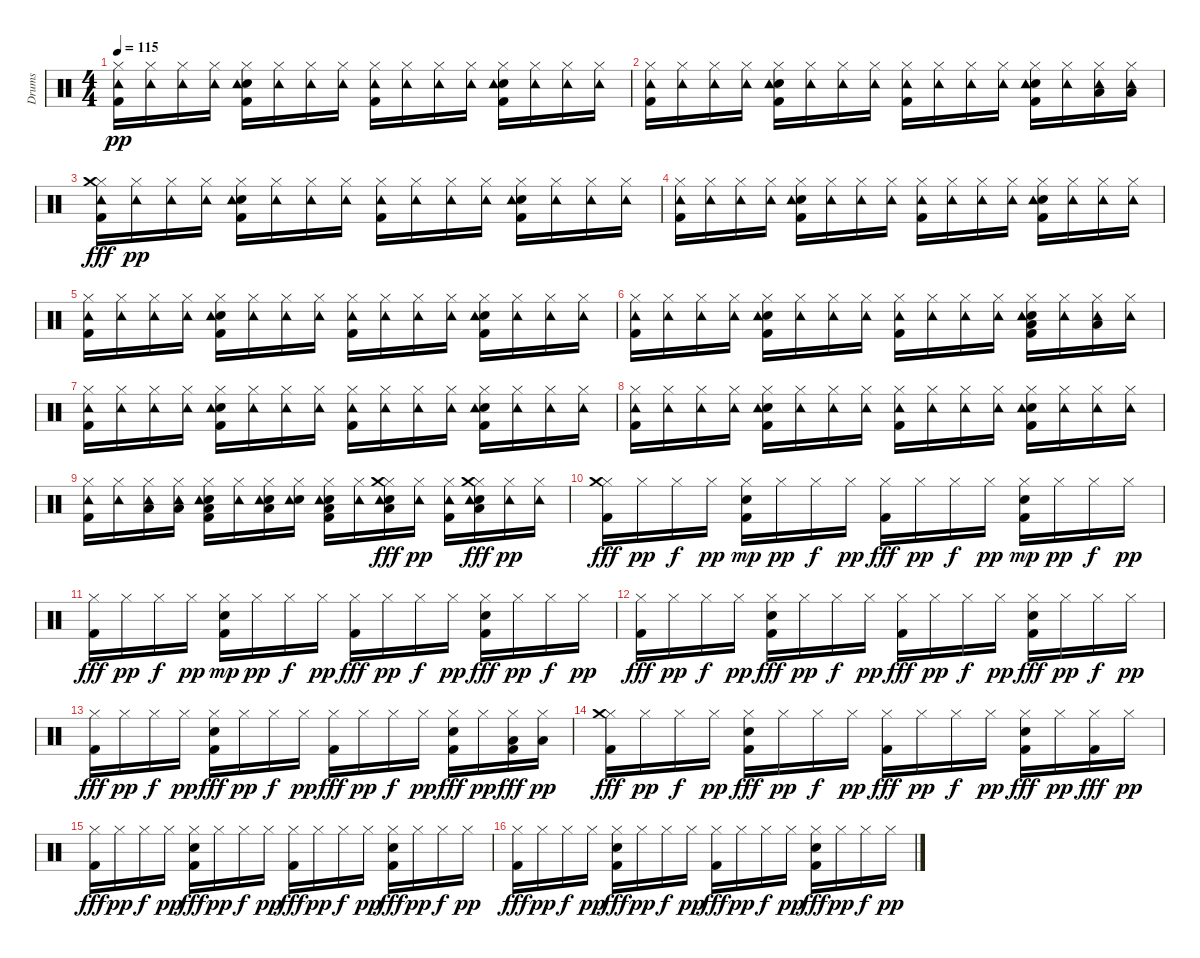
\track ("Drums" "Drums") {instrument percussion}
\staff {score}
\articulation defaults
\ts (4 4)
\tempo 115
\clef neutral
\ks c
("Kick (hit) 2" "Hi-Hat (closed)" "Tambourine (hit)").16{dy pp} ("Hi-Hat (closed)" "Tambourine (hit)").16 ("Hi-Hat (closed)" "Tambourine (hit)").16 ("Hi-Hat (closed)" "Tambourine (hit)").16 ("Kick (hit) 2" "Snare (hit) 2" "Hi-Hat (closed)" "Tambourine (hit)").16 ("Hi-Hat (closed)" "Tambourine (hit)").16 ("Hi-Hat (closed)" "Tambourine (hit)").16 ("Hi-Hat (closed)" "Tambourine (hit)").16 ("Kick (hit) 2" "Hi-Hat (closed)" "Tambourine (hit)").16 ("Hi-Hat (closed)" "Tambourine (hit)").16 ("Hi-Hat (closed)" "Tambourine (hit)").16 ("Hi-Hat (closed)" "Tambourine (hit)").16 ("Kick (hit) 2" "Snare (hit) 2" "Hi-Hat (closed)" "Tambourine (hit)").16 ("Hi-Hat (closed)" "Tambourine (hit)").16 ("Hi-Hat (closed)" "Tambourine (hit)").16 ("Hi-Hat (closed)" "Tambourine (hit)").16 |
("Kick (hit) 2" "Hi-Hat (closed)" "Tambourine (hit)").16 ("Hi-Hat (closed)" "Tambourine (hit)").16 ("Hi-Hat (closed)" "Tambourine (hit)").16 ("Hi-Hat (closed)" "Tambourine (hit)").16 ("Kick (hit) 2" "Snare (hit) 2" "Hi-Hat (closed)" "Tambourine (hit)").16 ("Hi-Hat (closed)" "Tambourine (hit)").16 ("Hi-Hat (closed)" "Tambourine (hit)").16 ("Hi-Hat (closed)" "Tambourine (hit)").16 ("Kick (hit) 2" "Hi-Hat (closed)" "Tambourine (hit)").16 ("Hi-Hat (closed)" "Tambourine (hit)").16 ("Hi-Hat (closed)" "Tambourine (hit)").16 ("Hi-Hat (closed)" "Tambourine (hit)").16 ("Kick (hit) 2" "Snare (hit) 2" "Hi-Hat (closed)" "Tambourine (hit)").16 ("Hi-Hat (closed)" "Tambourine (hit)").16 ("Hi-Hat (closed)" "Low Tom (hit)" "Tambourine (hit)").16 ("Hi-Hat (closed)" "Low Tom (hit)" "Tambourine (hit)").16 |
("Kick (hit) 2" "Hi-Hat (closed)" "Tambourine (hit)" "Crash medium (hit)").16{dy fff} ("Hi-Hat (closed)" "Tambourine (hit)").16{dy pp} ("Hi-Hat (closed)" "Tambourine (hit)").16 ("Hi-Hat (closed)" "Tambourine (hit)").16 ("Kick (hit) 2" "Snare (hit) 2" "Hi-Hat (closed)" "Tambourine (hit)").16 ("Hi-Hat (closed)" "Tambourine (hit)").16 ("Hi-Hat (closed)" "Tambourine (hit)").16 ("Hi-Hat (closed)" "Tambourine (hit)").16 ("Kick (hit) 2" "Hi-Hat (closed)" "Tambourine (hit)").16 ("Hi-Hat (closed)" "Tambourine (hit)").16 ("Hi-Hat (closed)" "Tambourine (hit)").16 ("Hi-Hat (closed)" "Tambourine (hit)").16 ("Kick (hit) 2" "Snare (hit) 2" "Hi-Hat (closed)" "Tambourine (hit)").16 ("Hi-Hat (closed)" "Tambourine (hit)").16 ("Hi-Hat (closed)" "Tambourine (hit)").16 ("Hi-Hat (closed)" "Tambourine (hit)").16 |
("Kick (hit) 2" "Hi-Hat (closed)" "Tambourine (hit)").16 ("Hi-Hat (closed)" "Tambourine (hit)").16 ("Hi-Hat (closed)" "Tambourine (hit)").16 ("Hi-Hat (closed)" "Tambourine (hit)").16 ("Kick (hit) 2" "Snare (hit) 2" "Hi-Hat (closed)" "Tambourine (hit)").16 ("Hi-Hat (closed)" "Tambourine (hit)").16 ("Hi-Hat (closed)" "Tambourine (hit)").16 ("Hi-Hat (closed)" "Tambourine (hit)").16 ("Kick (hit) 2" "Hi-Hat (closed)" "Tambourine (hit)").16 ("Hi-Hat (closed)" "Tambourine (hit)").16 ("Hi-Hat (closed)" "Tambourine (hit)").16 ("Hi-Hat (closed)" "Tambourine (hit)").16 ("Kick (hit) 2" "Snare (hit) 2" "Hi-Hat (closed)" "Tambourine (hit)").16 ("Hi-Hat (closed)" "Tambourine (hit)").16 ("Hi-Hat (closed)" "Tambourine (hit)").16 ("Hi-Hat (closed)" "Tambourine (hit)").16 |
("Kick (hit) 2" "Hi-Hat (closed)" "Tambourine (hit)").16 ("Hi-Hat (closed)" "Tambourine (hit)").16 ("Hi-Hat (closed)" "Tambourine (hit)").16 ("Hi-Hat (closed)" "Tambourine (hit)").16 ("Kick (hit) 2" "Snare (hit) 2" "Hi-Hat (closed)" "Tambourine (hit)").16 ("Hi-Hat (closed)" "Tambourine (hit)").16 ("Hi-Hat (closed)" "Tambourine (hit)").16 ("Hi-Hat (closed)" "Tambourine (hit)").16 ("Kick (hit) 2" "Hi-Hat (closed)" "Tambourine (hit)").16 ("Hi-Hat (closed)" "Tambourine (hit)").16 ("Hi-Hat (closed)" "Tambourine (hit)").16 ("Hi-Hat (closed)" "Tambourine (hit)").16 ("Kick (hit) 2" "Snare (hit) 2" "Hi-Hat (closed)" "Tambourine (hit)").16 ("Hi-Hat (closed)" "Tambourine (hit)").16 ("Hi-Hat (closed)" "Tambourine (hit)").16 ("Hi-Hat (closed)" "Tambourine (hit)").16 |
("Kick (hit) 2" "Hi-Hat (closed)" "Tambourine (hit)").16 ("Hi-Hat (closed)" "Tambourine (hit)").16 ("Hi-Hat (closed)" "Tambourine (hit)").16 ("Hi-Hat (closed)" "Tambourine (hit)").16 ("Kick (hit) 2" "Snare (hit) 2" "Hi-Hat (closed)" "Tambourine (hit)").16 ("Hi-Hat (closed)" "Tambourine (hit)").16 ("Hi-Hat (closed)" "Tambourine (hit)").16 ("Hi-Hat (closed)" "Tambourine (hit)").16 ("Kick (hit) 2" "Hi-Hat (closed)" "Tambourine (hit)").16 ("Hi-Hat (closed)" "Tambourine (hit)").16 ("Hi-Hat (closed)" "Tambourine (hit)").16 ("Hi-Hat (closed)" "Tambourine (hit)").16 ("Kick (hit) 2" "Snare (hit) 2" "Hi-Hat (closed)" "Low Tom (hit)" "Tambourine (hit)").16 ("Hi-Hat (closed)" "Tambourine (hit)").16 ("Low Floor Tom (hit)" "Hi-Hat (closed)" "Tambourine (hit)").16 ("Hi-Hat (closed)" "Tambourine (hit)").16 |
("Kick (hit) 2" "Hi-Hat (closed)" "Tambourine (hit)").16 ("Hi-Hat (closed)" "Tambourine (hit)").16 ("Hi-Hat (closed)" "Tambourine (hit)").16 ("Hi-Hat (closed)" "Tambourine (hit)").16 ("Kick (hit) 2" "Snare (hit) 2" "Hi-Hat (closed)" "Tambourine (hit)").16 ("Hi-Hat (closed)" "Tambourine (hit)").16 ("Hi-Hat (closed)" "Tambourine (hit)").16 ("Hi-Hat (closed)" "Tambourine (hit)").16 ("Kick (hit) 2" "Hi-Hat (closed)" "Tambourine (hit)").16 ("Hi-Hat (closed)" "Tambourine (hit)").16 ("Hi-Hat (closed)" "Tambourine (hit)").16 ("Hi-Hat (closed)" "Tambourine (hit)").16 ("Kick (hit) 2" "Snare (hit) 2" "Hi-Hat (closed)" "Tambourine (hit)").16 ("Hi-Hat (closed)" "Tambourine (hit)").16 ("Hi-Hat (closed)" "Tambourine (hit)").16 ("Hi-Hat (closed)" "Tambourine (hit)").16 |
("Kick (hit) 2" "Hi-Hat (closed)" "Tambourine (hit)").16 ("Hi-Hat (closed)" "Tambourine (hit)").16 ("Hi-Hat (closed)" "Tambourine (hit)").16 ("Hi-Hat (closed)" "Tambourine (hit)").16 ("Kick (hit) 2" "Snare (hit) 2" "Hi-Hat (closed)" "Tambourine (hit)").16 ("Hi-Hat (closed)" "Tambourine (hit)").16 ("Hi-Hat (closed)" "Tambourine (hit)").16 ("Hi-Hat (closed)" "Tambourine (hit)").16 ("Kick (hit) 2" "Hi-Hat (closed)" "Tambourine (hit)").16 ("Hi-Hat (closed)" "Tambourine (hit)").16 ("Hi-Hat (closed)" "Tambourine (hit)").16 ("Hi-Hat (closed)" "Tambourine (hit)").16 ("Kick (hit) 2" "Snare (hit) 2" "Hi-Hat (closed)" "Tambourine (hit)").16 ("Hi-Hat (closed)" "Tambourine (hit)").16 ("Hi-Hat (closed)" "Tambourine (hit)").16 ("Hi-Hat (closed)" "Tambourine (hit)").16 |
("Kick (hit) 2" "Hi-Hat (closed)" "Tambourine (hit)").16 ("Hi-Hat (closed)" "Tambourine (hit)").16 ("Hi-Hat (closed)" "Low Tom (hit)" "Tambourine (hit)").16 ("Hi-Hat (closed)" "Low Tom (hit)" "Tambourine (hit)").16 ("Kick (hit) 2" "Snare (hit) 2" "Hi-Hat (closed)" "Low Tom (hit)" "Tambourine (hit)").16 ("Hi-Hat (closed)" "Tambourine (hit)").16 ("Snare (hit) 2" "Hi-Hat (closed)" "Low Tom (hit)" "Tambourine (hit)").16 ("Snare (hit) 2" "Hi-Hat (closed)" "Tambourine (hit)").16 ("Kick (hit) 2" "Snare (hit) 2" "Low Floor Tom (hit)" "Hi-Hat (closed)" "Tambourine (hit)").16 ("Hi-Hat (closed)" "Tambourine (hit)").16 ("Snare (hit) 2" "Hi-Hat (closed)" "Low Tom (hit)" "Tambourine (hit)" "Crash medium (hit)").16{dy fff} ("Hi-Hat (closed)" "Tambourine (hit)").16{dy pp} ("Kick (hit) 2" "Hi-Hat (closed)" "Tambourine (hit)").16 ("Snare (hit) 2" "Hi-Hat (closed)" "Low Tom (hit)" "Tambourine (hit)" "Crash medium (hit)").16{dy fff} ("Hi-Hat (closed)" "Tambourine (hit)").16{dy pp} ("Hi-Hat (closed)" "Tambourine (hit)").16 |
("Kick (hit) 2" "Hi-Hat (closed)" "Crash medium (hit)").16{dy fff} "Hi-Hat (closed)".16{dy pp} "Hi-Hat (closed)".16{dy f} "Hi-Hat (closed)".16{dy pp} ("Kick (hit) 2" "Snare (hit) 2" "Hi-Hat (closed)").16{dy mp} "Hi-Hat (closed)".16{dy pp} "Hi-Hat (closed)".16{dy f} "Hi-Hat (closed)".16{dy pp} ("Kick (hit) 2" "Hi-Hat (closed)").16{dy fff} "Hi-Hat (closed)".16{dy pp} "Hi-Hat (closed)".16{dy f} "Hi-Hat (closed)".16{dy pp} ("Kick (hit) 2" "Snare (hit) 2" "Hi-Hat (closed)").16{dy mp} "Hi-Hat (closed)".16{dy pp} "Hi-Hat (closed)".16{dy f} "Hi-Hat (closed)".16{dy pp} |
("Kick (hit) 2" "Hi-Hat (closed)").16{dy fff} "Hi-Hat (closed)".16{dy pp} "Hi-Hat (closed)".16{dy f} "Hi-Hat (closed)".16{dy pp} ("Kick (hit) 2" "Snare (hit) 2" "Hi-Hat (closed)").16{dy mp} "Hi-Hat (closed)".16{dy pp} "Hi-Hat (closed)".16{dy f} "Hi-Hat (closed)".16{dy pp} ("Kick (hit) 2" "Hi-Hat (closed)").16{dy fff} "Hi-Hat (closed)".16{dy pp} "Hi-Hat (closed)".16{dy f} "Hi-Hat (closed)".16{dy pp} ("Kick (hit) 2" "Snare (hit) 2" "Hi-Hat (closed)").16{dy fff} "Hi-Hat (closed)".16{dy pp} "Hi-Hat (closed)".16{dy f} "Hi-Hat (closed)".16{dy pp} |
("Kick (hit) 2" "Hi-Hat (closed)").16{dy fff} "Hi-Hat (closed)".16{dy pp} "Hi-Hat (closed)".16{dy f} "Hi-Hat (closed)".16{dy pp} ("Kick (hit) 2" "Snare (hit) 2" "Hi-Hat (closed)").16{dy fff} "Hi-Hat (closed)".16{dy pp} "Hi-Hat (closed)".16{dy f} "Hi-Hat (closed)".16{dy pp} ("Kick (hit) 2" "Hi-Hat (closed)").16{dy fff} "Hi-Hat (closed)".16{dy pp} "Hi-Hat (closed)".16{dy f} "Hi-Hat (closed)".16{dy pp} ("Kick (hit) 2" "Snare (hit) 2" "Hi-Hat (closed)").16{dy fff} "Hi-Hat (closed)".16{dy pp} "Hi-Hat (closed)".16{dy f} "Hi-Hat (closed)".16{dy pp} |
("Kick (hit) 2" "Hi-Hat (closed)").16{dy fff} "Hi-Hat (closed)".16{dy pp} "Hi-Hat (closed)".16{dy f} "Hi-Hat (closed)".16{dy pp} ("Kick (hit) 2" "Snare (hit) 2" "Hi-Hat (closed)").16{dy fff} "Hi-Hat (closed)".16{dy pp} "Hi-Hat (closed)".16{dy f} "Hi-Hat (closed)".16{dy pp} ("Kick (hit) 2" "Hi-Hat (closed)").16{dy fff} "Hi-Hat (closed)".16{dy pp} "Hi-Hat (closed)".16{dy f} "Hi-Hat (closed)".16{dy pp} ("Kick (hit) 2" "Snare (hit) 2" "Hi-Hat (closed)").16{dy fff} "Hi-Hat (closed)".16{dy pp} ("Kick (hit) 2" "Hi-Hat (closed)" "Low Tom (hit)").16{dy fff} ("Low Floor Tom (hit)" "Hi-Hat (closed)").16{dy pp} |
("Kick (hit) 2" "Hi-Hat (closed)" "Crash medium (hit)").16{dy fff} "Hi-Hat (closed)".16{dy pp} "Hi-Hat (closed)".16{dy f} "Hi-Hat (closed)".16{dy pp} ("Kick (hit) 2" "Snare (hit) 2" "Hi-Hat (closed)").16{dy fff} "Hi-Hat (closed)".16{dy pp} "Hi-Hat (closed)".16{dy f} "Hi-Hat (closed)".16{dy pp} ("Kick (hit) 2" "Hi-Hat (closed)").16{dy fff} "Hi-Hat (closed)".16{dy pp} "Hi-Hat (closed)".16{dy f} "Hi-Hat (closed)".16{dy pp} ("Kick (hit) 2" "Snare (hit) 2" "Hi-Hat (closed)").16{dy fff} "Hi-Hat (closed)".16{dy pp} ("Kick (hit) 2" "Hi-Hat (closed)").16{dy fff} "Hi-Hat (closed)".16{dy pp} |
("Kick (hit) 2" "Hi-Hat (closed)").16{dy fff} "Hi-Hat (closed)".16{dy pp} "Hi-Hat (closed)".16{dy f} "Hi-Hat (closed)".16{dy pp} ("Kick (hit) 2" "Snare (hit) 2" "Hi-Hat (closed)").16{dy fff} "Hi-Hat (closed)".16{dy pp} "Hi-Hat (closed)".16{dy f} "Hi-Hat (closed)".16{dy pp} ("Kick (hit) 2" "Hi-Hat (closed)").16{dy fff} "Hi-Hat (closed)".16{dy pp} "Hi-Hat (closed)".16{dy f} "Hi-Hat (closed)".16{dy pp} ("Kick (hit) 2" "Snare (hit) 2" "Hi-Hat (closed)").16{dy fff} "Hi-Hat (closed)".16{dy pp} "Hi-Hat (closed)".16{dy f} "Hi-Hat (closed)".16{dy pp} |
("Kick (hit) 2" "Hi-Hat (closed)").16{dy fff} "Hi-Hat (closed)".16{dy pp} "Hi-Hat (closed)".16{dy f} "Hi-Hat (closed)".16{dy pp} ("Kick (hit) 2" "Snare (hit) 2" "Hi-Hat (closed)").16{dy fff} "Hi-Hat (closed)".16{dy pp} "Hi-Hat (closed)".16{dy f} "Hi-Hat (closed)".16{dy pp} ("Kick (hit) 2" "Hi-Hat (closed)").16{dy fff} "Hi-Hat (closed)".16{dy pp} "Hi-Hat (closed)".16{dy f} "Hi-Hat (closed)".16{dy pp} ("Kick (hit) 2" "Snare (hit) 2" "Hi-Hat (closed)").16{dy fff} "Hi-Hat (closed)".16{dy pp} "Hi-Hat (closed)".16{dy f} "Hi-Hat (closed)".16{dy pp}
